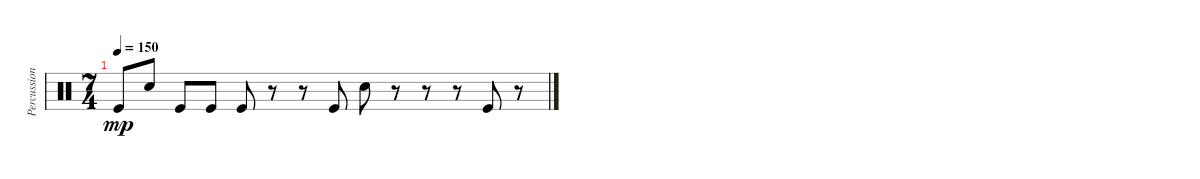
\track ("Percussion" "Percussion") {instrument percussion}
\staff {score}
\articulation defaults
\ts (7 4)
\tempo 150
\clef neutral
\ks c "Kick (hit)".8{dy mp} "Electric Snare (hit)".8 "Kick (hit)".8 "Kick (hit)".8 "Kick (hit)".8
r.8 r.8 "Kick (hit)".8 "Electric Snare (hit)".8 r.8 r.8 r.8 "Kick (hit)".8 r.8
